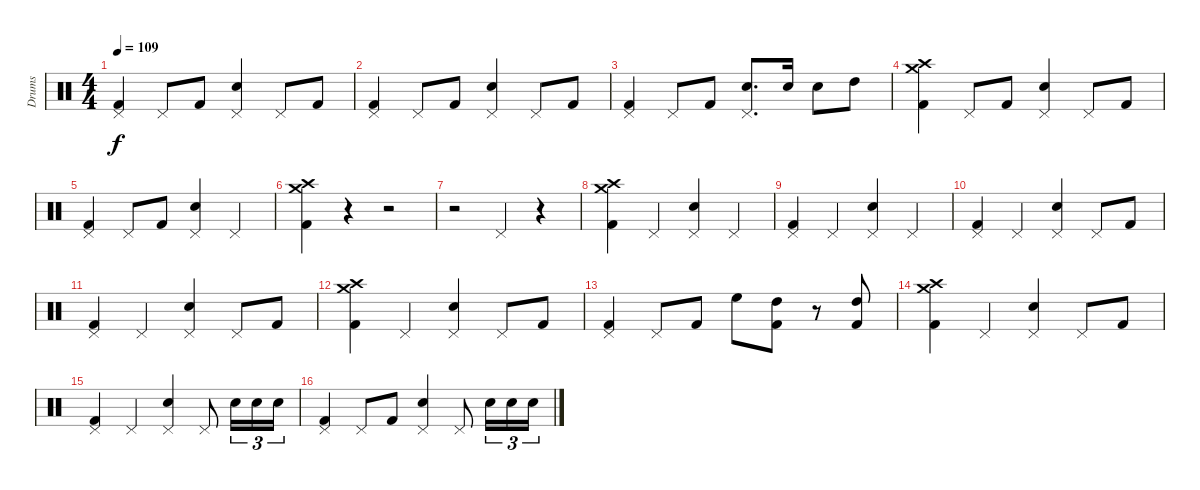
\track ("Drums" "Drums") {instrument percussion}
\staff {score}
\articulation defaults
\ts (4 4)
\tempo 109
\clef neutral
\ks c
("Pedal Hi-Hat (hit)" "Kick (hit) 2").4{dy f} "Pedal Hi-Hat (hit)".8 "Kick (hit) 2".8 ("Pedal Hi-Hat (hit)" "Electric Snare (hit)").4 "Pedal Hi-Hat (hit)".8 "Kick (hit) 2".8 |
("Pedal Hi-Hat (hit)" "Kick (hit) 2").4 "Pedal Hi-Hat (hit)".8 "Kick (hit) 2".8 ("Pedal Hi-Hat (hit)" "Electric Snare (hit)").4 "Pedal Hi-Hat (hit)".8 "Kick (hit) 2".8 |
("Pedal Hi-Hat (hit)" "Kick (hit) 2").4 "Pedal Hi-Hat (hit)".8 "Kick (hit) 2".8 ("Pedal Hi-Hat (hit)" "Electric Snare (hit)").8{d} "Electric Snare (hit)".16 "Electric Snare (hit)".8 "High Tom (hit)".8 |
("Crash high (hit)" "Crash medium (hit)" "Kick (hit) 2").4 "Pedal Hi-Hat (hit)".8 "Kick (hit) 2".8 ("Pedal Hi-Hat (hit)" "Electric Snare (hit)").4 "Pedal Hi-Hat (hit)".8 "Kick (hit) 2".8 |
("Pedal Hi-Hat (hit)" "Kick (hit) 2").4 "Pedal Hi-Hat (hit)".8 "Kick (hit) 2".8 ("Pedal Hi-Hat (hit)" "Electric Snare (hit)").4 "Pedal Hi-Hat (hit)".4 |
("Crash high (hit)" "Crash medium (hit)" "Kick (hit) 2").4 r.4 r.2 |
r.2 "Pedal Hi-Hat (hit)".4 r.4 |
("Crash high (hit)" "Crash medium (hit)" "Kick (hit) 2").4 "Pedal Hi-Hat (hit)".4 ("Pedal Hi-Hat (hit)" "Electric Snare (hit)").4 "Pedal Hi-Hat (hit)".4 |
("Pedal Hi-Hat (hit)" "Kick (hit) 2").4 "Pedal Hi-Hat (hit)".4 ("Pedal Hi-Hat (hit)" "Electric Snare (hit)").4 "Pedal Hi-Hat (hit)".4 |
("Pedal Hi-Hat (hit)" "Kick (hit) 2").4 "Pedal Hi-Hat (hit)".4 ("Pedal Hi-Hat (hit)" "Electric Snare (hit)").4 "Pedal Hi-Hat (hit)".8 "Kick (hit) 2".8 |
("Pedal Hi-Hat (hit)" "Kick (hit) 2").4 "Pedal Hi-Hat (hit)".4 ("Pedal Hi-Hat (hit)" "Electric Snare (hit)").4 "Pedal Hi-Hat (hit)".8 "Kick (hit) 2".8 |
("Crash high (hit)" "Crash medium (hit)" "Kick (hit) 2").4 "Pedal Hi-Hat (hit)".4 ("Pedal Hi-Hat (hit)" "Electric Snare (hit)").4 "Pedal Hi-Hat (hit)".8 "Kick (hit) 2".8 |
("Pedal Hi-Hat (hit)" "Kick (hit) 2").4 "Pedal Hi-Hat (hit)".8 "Kick (hit) 2".8 "High Floor Tom (hit)".8 ("High Tom (hit)" "Kick (hit) 2").8 r.8 ("High Tom (hit)" "Kick (hit) 2").8 |
("Crash high (hit)" "Crash medium (hit)" "Kick (hit) 2").4 "Pedal Hi-Hat (hit)".4 ("Pedal Hi-Hat (hit)" "Electric Snare (hit)").4 "Pedal Hi-Hat (hit)".8 "Kick (hit) 2".8 |
("Pedal Hi-Hat (hit)" "Kick (hit) 2").4 "Pedal Hi-Hat (hit)".4 ("Pedal Hi-Hat (hit)" "Electric Snare (hit)").4 "Pedal Hi-Hat (hit)".8 "Electric Snare (hit)".16{tu (3 2)} "Electric Snare (hit)".16{tu (3 2)} "Electric Snare (hit)".16{tu (3 2)} |
("Pedal Hi-Hat (hit)" "Kick (hit) 2").4 "Pedal Hi-Hat (hit)".8 "Kick (hit) 2".8 ("Pedal Hi-Hat (hit)" "Electric Snare (hit)").4 "Pedal Hi-Hat (hit)".8 "Electric Snare (hit)".16{tu (3 2)} "Electric Snare (hit)".16{tu (3 2)} "Electric Snare (hit)".16{tu (3 2)}
